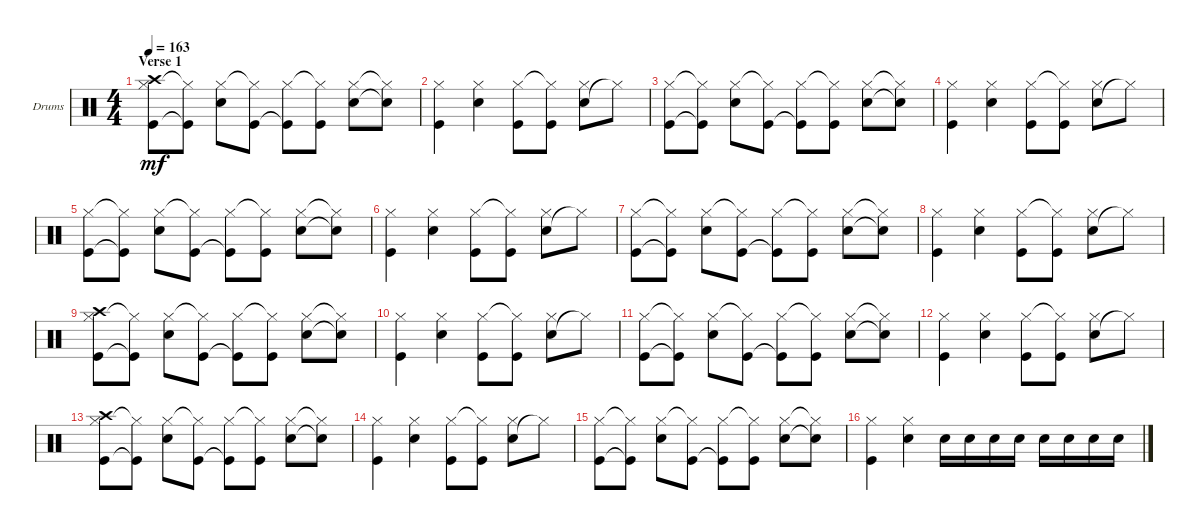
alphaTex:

\bracketExtendMode groupsimilarinstruments
\firstSystemTrackNameOrientation horizontal
\otherSystemsTrackNameOrientation horizontal
\track ("Drums" "Drums") {instrument percussion}
\staff {score}
\articulation defaults
\ts (4 4)
\section ("" "Verse 1")
\tempo 163
\clef neutral
\scale
0.333333
\ks c
("Kick (hit)" "Hi-Hat (closed)" "Crash high (hit)").8{dy mf} ("Kick (hit)"{t} "Hi-Hat (closed)"{t}).8 ("Hi-Hat (closed)" "Snare (hit) 2").8 ("Hi-Hat (closed)"{t} "Kick (hit)").8 ("Hi-Hat (closed)" "Kick (hit)"{t}).8 ("Hi-Hat (closed)"{t} "Kick (hit)").8 ("Hi-Hat (closed)" "Snare (hit) 2").8 ("Hi-Hat (closed)"{t} "Snare (hit) 2"{t}).8 |
\scale
0.333333 ("Kick (hit)" "Hi-Hat (closed)").4 ("Snare (hit) 2" "Hi-Hat (closed)").4 ("Kick (hit)" "Hi-Hat (closed)").8 ("Kick (hit)" "Hi-Hat (closed)"{t}).8 ("Snare (hit) 2" "Hi-Hat (closed)").8 "Hi-Hat (closed)"{t}.8 |
\scale
0.333333 ("Kick (hit)" "Hi-Hat (closed)").8 ("Kick (hit)"{t} "Hi-Hat (closed)"{t}).8 ("Hi-Hat (closed)" "Snare (hit) 2").8 ("Hi-Hat (closed)"{t} "Kick (hit)").8 ("Hi-Hat (closed)" "Kick (hit)"{t}).8 ("Hi-Hat (closed)"{t} "Kick (hit)").8 ("Hi-Hat (closed)" "Snare (hit) 2").8 ("Hi-Hat (closed)"{t} "Snare (hit) 2"{t}).8 |
\scale
0.333333 ("Kick (hit)" "Hi-Hat (closed)").4 ("Snare (hit) 2" "Hi-Hat (closed)").4 ("Kick (hit)" "Hi-Hat (closed)").8 ("Kick (hit)" "Hi-Hat (closed)"{t}).8 ("Snare (hit) 2" "Hi-Hat (closed)").8 "Hi-Hat (closed)"{t}.8 |
\scale
0.333333 ("Kick (hit)" "Hi-Hat (closed)").8 ("Kick (hit)"{t} "Hi-Hat (closed)"{t}).8 ("Hi-Hat (closed)" "Snare (hit) 2").8 ("Hi-Hat (closed)"{t} "Kick (hit)").8 ("Hi-Hat (closed)" "Kick (hit)"{t}).8 ("Hi-Hat (closed)"{t} "Kick (hit)").8 ("Hi-Hat (closed)" "Snare (hit) 2").8 ("Hi-Hat (closed)"{t} "Snare (hit) 2"{t}).8 |
\scale
0.333333 ("Kick (hit)" "Hi-Hat (closed)").4 ("Snare (hit) 2" "Hi-Hat (closed)").4 ("Kick (hit)" "Hi-Hat (closed)").8 ("Kick (hit)" "Hi-Hat (closed)"{t}).8 ("Snare (hit) 2" "Hi-Hat (closed)").8 "Hi-Hat (closed)"{t}.8 |
\scale
0.333333 ("Kick (hit)" "Hi-Hat (closed)").8 ("Kick (hit)"{t} "Hi-Hat (closed)"{t}).8 ("Hi-Hat (closed)" "Snare (hit) 2").8 ("Hi-Hat (closed)"{t} "Kick (hit)").8 ("Hi-Hat (closed)" "Kick (hit)"{t}).8 ("Hi-Hat (closed)"{t} "Kick (hit)").8 ("Hi-Hat (closed)" "Snare (hit) 2").8 ("Hi-Hat (closed)"{t} "Snare (hit) 2"{t}).8 |
\scale
0.333333 ("Kick (hit)" "Hi-Hat (closed)").4 ("Snare (hit) 2" "Hi-Hat (closed)").4 ("Kick (hit)" "Hi-Hat (closed)").8 ("Kick (hit)" "Hi-Hat (closed)"{t}).8 ("Snare (hit) 2" "Hi-Hat (closed)").8 "Hi-Hat (closed)"{t}.8 |
\scale
0.333333 ("Kick (hit)" "Hi-Hat (closed)" "Crash high (hit)").8 ("Kick (hit)"{t} "Hi-Hat (closed)"{t}).8 ("Hi-Hat (closed)" "Snare (hit) 2").8 ("Hi-Hat (closed)"{t} "Kick (hit)").8 ("Hi-Hat (closed)" "Kick (hit)"{t}).8 ("Hi-Hat (closed)"{t} "Kick (hit)").8 ("Hi-Hat (closed)" "Snare (hit) 2").8 ("Hi-Hat (closed)"{t} "Snare (hit) 2"{t}).8 |
\scale
0.333333 ("Kick (hit)" "Hi-Hat (closed)").4 ("Snare (hit) 2" "Hi-Hat (closed)").4 ("Kick (hit)" "Hi-Hat (closed)").8 ("Kick (hit)" "Hi-Hat (closed)"{t}).8 ("Snare (hit) 2" "Hi-Hat (closed)").8 "Hi-Hat (closed)"{t}.8 |
\scale
0.333333 ("Kick (hit)" "Hi-Hat (closed)").8 ("Kick (hit)"{t} "Hi-Hat (closed)"{t}).8 ("Hi-Hat (closed)" "Snare (hit) 2").8 ("Hi-Hat (closed)"{t} "Kick (hit)").8 ("Hi-Hat (closed)" "Kick (hit)"{t}).8 ("Hi-Hat (closed)"{t} "Kick (hit)").8 ("Hi-Hat (closed)" "Snare (hit) 2").8 ("Hi-Hat (closed)"{t} "Snare (hit) 2"{t}).8 |
\scale
0.333333 ("Kick (hit)" "Hi-Hat (closed)").4 ("Snare (hit) 2" "Hi-Hat (closed)").4 ("Kick (hit)" "Hi-Hat (closed)").8 ("Kick (hit)" "Hi-Hat (closed)"{t}).8 ("Snare (hit) 2" "Hi-Hat (closed)").8 "Hi-Hat (closed)"{t}.8 |
\scale
0.333333 ("Kick (hit)" "Hi-Hat (closed)" "Crash high (hit)").8 ("Kick (hit)"{t} "Hi-Hat (closed)"{t}).8 ("Hi-Hat (closed)" "Snare (hit) 2").8 ("Hi-Hat (closed)"{t} "Kick (hit)").8 ("Hi-Hat (closed)" "Kick (hit)"{t}).8 ("Hi-Hat (closed)"{t} "Kick (hit)").8 ("Hi-Hat (closed)" "Snare (hit) 2").8 ("Hi-Hat (closed)"{t} "Snare (hit) 2"{t}).8 |
\scale
0.333333 ("Kick (hit)" "Hi-Hat (closed)").4 ("Snare (hit) 2" "Hi-Hat (closed)").4 ("Kick (hit)" "Hi-Hat (closed)").8 ("Kick (hit)" "Hi-Hat (closed)"{t}).8 ("Snare (hit) 2" "Hi-Hat (closed)").8 "Hi-Hat (closed)"{t}.8 |
\scale
0.333333 ("Kick (hit)" "Hi-Hat (closed)").8 ("Kick (hit)"{t} "Hi-Hat (closed)"{t}).8 ("Hi-Hat (closed)" "Snare (hit) 2").8 ("Hi-Hat (closed)"{t} "Kick (hit)").8 ("Hi-Hat (closed)" "Kick (hit)"{t}).8 ("Hi-Hat (closed)"{t} "Kick (hit)").8 ("Hi-Hat (closed)" "Snare (hit) 2").8 ("Hi-Hat (closed)"{t} "Snare (hit) 2"{t}).8 |
\scale
0.333333 ("Kick (hit)" "Hi-Hat (closed)").4 ("Snare (hit) 2" "Hi-Hat (closed)").4 "Snare (hit) 2".16 "Snare (hit) 2".16 "Snare (hit) 2".16 "Snare (hit) 2".16 "Snare (hit) 2".16 "Snare (hit) 2".16 "Snare (hit) 2".16 "Snare (hit) 2".16
